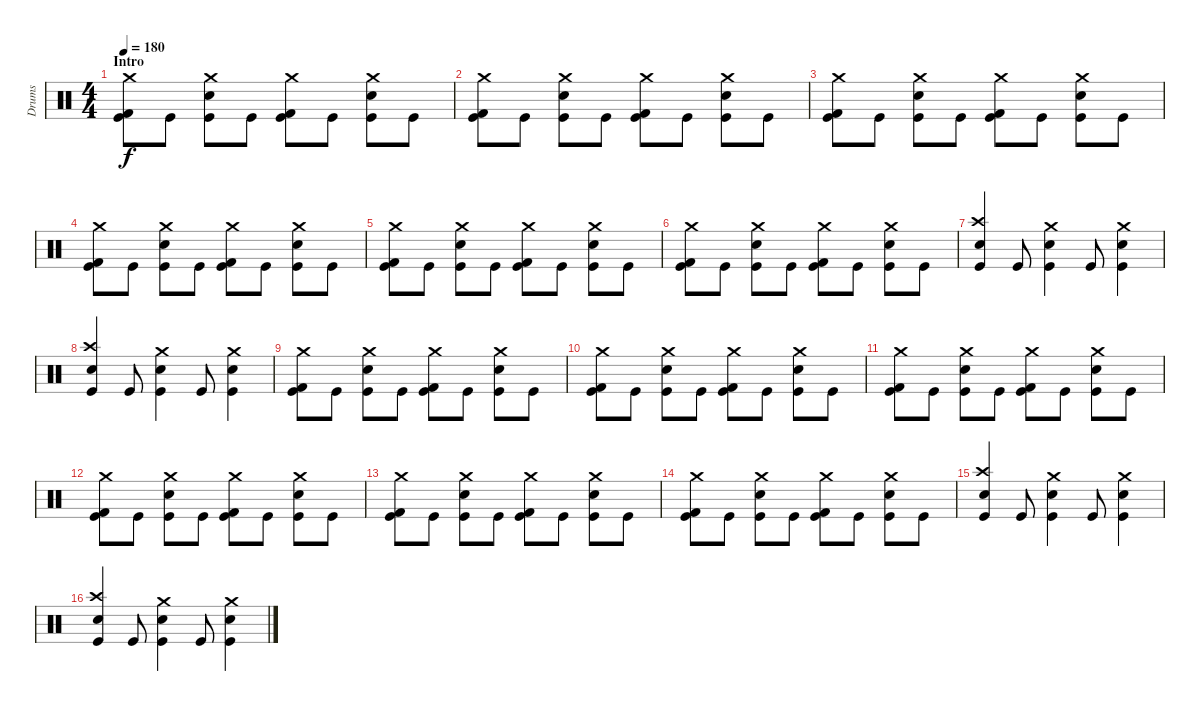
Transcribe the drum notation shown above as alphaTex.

\track ("Drums" "Drums") {instrument percussion}
\staff {score}
\articulation defaults
\ts (4 4)
\section ("" "Intro")
\tempo 180
\clef neutral
\ks c
("Crash medium (hit)" "Kick (hit)" "Kick (hit) 2").8{dy f} "Kick (hit)".8 ("Crash medium (hit)" "Kick (hit)" "Electric Snare (hit)").8 "Kick (hit)".8 ("Crash medium (hit)" "Kick (hit)" "Kick (hit) 2").8 "Kick (hit)".8 ("Crash medium (hit)" "Kick (hit)" "Electric Snare (hit)").8 "Kick (hit)".8 |
("Crash medium (hit)" "Kick (hit)" "Kick (hit) 2").8 "Kick (hit)".8 ("Crash medium (hit)" "Kick (hit)" "Electric Snare (hit)").8 "Kick (hit)".8 ("Crash medium (hit)" "Kick (hit)" "Kick (hit) 2").8 "Kick (hit)".8 ("Crash medium (hit)" "Kick (hit)" "Electric Snare (hit)").8 "Kick (hit)".8 |
("Crash medium (hit)" "Kick (hit)" "Kick (hit) 2").8 "Kick (hit)".8 ("Crash medium (hit)" "Kick (hit)" "Electric Snare (hit)").8 "Kick (hit)".8 ("Crash medium (hit)" "Kick (hit)" "Kick (hit) 2").8 "Kick (hit)".8 ("Crash medium (hit)" "Kick (hit)" "Electric Snare (hit)").8 "Kick (hit)".8 |
("Crash medium (hit)" "Kick (hit)" "Kick (hit) 2").8 "Kick (hit)".8 ("Crash medium (hit)" "Kick (hit)" "Electric Snare (hit)").8 "Kick (hit)".8 ("Crash medium (hit)" "Kick (hit)" "Kick (hit) 2").8 "Kick (hit)".8 ("Crash medium (hit)" "Kick (hit)" "Electric Snare (hit)").8 "Kick (hit)".8 |
("Crash medium (hit)" "Kick (hit)" "Kick (hit) 2").8 "Kick (hit)".8 ("Crash medium (hit)" "Kick (hit)" "Electric Snare (hit)").8 "Kick (hit)".8 ("Crash medium (hit)" "Kick (hit)" "Kick (hit) 2").8 "Kick (hit)".8 ("Crash medium (hit)" "Kick (hit)" "Electric Snare (hit)").8 "Kick (hit)".8 |
("Crash medium (hit)" "Kick (hit)" "Kick (hit) 2").8 "Kick (hit)".8 ("Crash medium (hit)" "Kick (hit)" "Electric Snare (hit)").8 "Kick (hit)".8 ("Crash medium (hit)" "Kick (hit)" "Kick (hit) 2").8 "Kick (hit)".8 ("Crash medium (hit)" "Kick (hit)" "Electric Snare (hit)").8 "Kick (hit)".8 |
("Crash high (hit)" "Kick (hit)" "Snare (hit) 2").4 "Kick (hit)".8 ("Crash medium (hit)" "Kick (hit)" "Snare (hit) 2").4 "Kick (hit)".8 ("Crash medium (hit)" "Kick (hit)" "Snare (hit) 2").4 |
("Crash high (hit)" "Kick (hit)" "Snare (hit) 2").4 "Kick (hit)".8 ("Crash medium (hit)" "Kick (hit)" "Snare (hit) 2").4 "Kick (hit)".8 ("Crash medium (hit)" "Kick (hit)" "Snare (hit) 2").4 |
("Crash medium (hit)" "Kick (hit)" "Kick (hit) 2").8 "Kick (hit)".8 ("Crash medium (hit)" "Kick (hit)" "Electric Snare (hit)").8 "Kick (hit)".8 ("Crash medium (hit)" "Kick (hit)" "Kick (hit) 2").8 "Kick (hit)".8 ("Crash medium (hit)" "Kick (hit)" "Electric Snare (hit)").8 "Kick (hit)".8 |
("Crash medium (hit)" "Kick (hit)" "Kick (hit) 2").8 "Kick (hit)".8 ("Crash medium (hit)" "Kick (hit)" "Electric Snare (hit)").8 "Kick (hit)".8 ("Crash medium (hit)" "Kick (hit)" "Kick (hit) 2").8 "Kick (hit)".8 ("Crash medium (hit)" "Kick (hit)" "Electric Snare (hit)").8 "Kick (hit)".8 |
("Crash medium (hit)" "Kick (hit)" "Kick (hit) 2").8 "Kick (hit)".8 ("Crash medium (hit)" "Kick (hit)" "Electric Snare (hit)").8 "Kick (hit)".8 ("Crash medium (hit)" "Kick (hit)" "Kick (hit) 2").8 "Kick (hit)".8 ("Crash medium (hit)" "Kick (hit)" "Electric Snare (hit)").8 "Kick (hit)".8 |
("Crash medium (hit)" "Kick (hit)" "Kick (hit) 2").8 "Kick (hit)".8 ("Crash medium (hit)" "Kick (hit)" "Electric Snare (hit)").8 "Kick (hit)".8 ("Crash medium (hit)" "Kick (hit)" "Kick (hit) 2").8 "Kick (hit)".8 ("Crash medium (hit)" "Kick (hit)" "Electric Snare (hit)").8 "Kick (hit)".8 |
("Crash medium (hit)" "Kick (hit)" "Kick (hit) 2").8 "Kick (hit)".8 ("Crash medium (hit)" "Kick (hit)" "Electric Snare (hit)").8 "Kick (hit)".8 ("Crash medium (hit)" "Kick (hit)" "Kick (hit) 2").8 "Kick (hit)".8 ("Crash medium (hit)" "Kick (hit)" "Electric Snare (hit)").8 "Kick (hit)".8 |
("Crash medium (hit)" "Kick (hit)" "Kick (hit) 2").8 "Kick (hit)".8 ("Crash medium (hit)" "Kick (hit)" "Electric Snare (hit)").8 "Kick (hit)".8 ("Crash medium (hit)" "Kick (hit)" "Kick (hit) 2").8 "Kick (hit)".8 ("Crash medium (hit)" "Kick (hit)" "Electric Snare (hit)").8 "Kick (hit)".8 |
("Crash high (hit)" "Kick (hit)" "Snare (hit) 2").4 "Kick (hit)".8 ("Crash medium (hit)" "Kick (hit)" "Snare (hit) 2").4 "Kick (hit)".8 ("Crash medium (hit)" "Kick (hit)" "Snare (hit) 2").4 |
("Crash high (hit)" "Kick (hit)" "Snare (hit) 2").4 "Kick (hit)".8 ("Crash medium (hit)" "Kick (hit)" "Snare (hit) 2").4 "Kick (hit)".8 ("Crash medium (hit)" "Kick (hit)" "Snare (hit) 2").4
